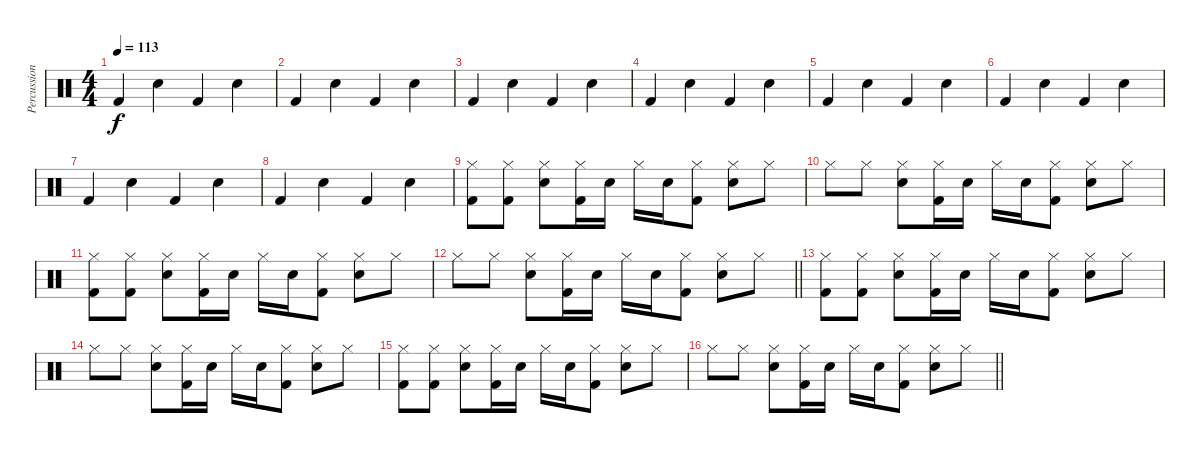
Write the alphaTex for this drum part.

\track ("Percussion" "Percussion") {instrument percussion}
\staff {score}
\articulation defaults
\ts (4 4)
\tempo 113
\clef neutral
\ks c "Kick (hit) 2".4{dy f} "Snare (hit) 2".4 "Kick (hit) 2".4 "Snare (hit) 2".4
|
"Kick (hit) 2".4 "Snare (hit) 2".4 "Kick (hit) 2".4 "Snare (hit) 2".4 |
"Kick (hit) 2".4 "Snare (hit) 2".4 "Kick (hit) 2".4 "Snare (hit) 2".4 |
"Kick (hit) 2".4 "Snare (hit) 2".4 "Kick (hit) 2".4 "Snare (hit) 2".4 |
"Kick (hit) 2".4 "Snare (hit) 2".4 "Kick (hit) 2".4 "Snare (hit) 2".4 |
"Kick (hit) 2".4 "Snare (hit) 2".4 "Kick (hit) 2".4 "Snare (hit) 2".4 |
"Kick (hit) 2".4 "Snare (hit) 2".4 "Kick (hit) 2".4 "Snare (hit) 2".4 |
"Kick (hit) 2".4 "Snare (hit) 2".4 "Kick (hit) 2".4 "Snare (hit) 2".4 |
("Hi-Hat (closed)" "Kick (hit) 2").8 ("Hi-Hat (closed)" "Kick (hit) 2").8 ("Hi-Hat (closed)" "Snare (hit) 2").8 ("Hi-Hat (closed)" "Kick (hit) 2").16 "Snare (hit) 2".16 "Hi-Hat (closed)".16 "Snare (hit) 2".16 ("Hi-Hat (closed)" "Kick (hit) 2").8 ("Hi-Hat (closed)" "Snare (hit) 2").8 "Hi-Hat (closed)".8 |
"Hi-Hat (closed)".8 "Hi-Hat (closed)".8 ("Hi-Hat (closed)" "Snare (hit) 2").8 ("Hi-Hat (closed)" "Kick (hit) 2").16 "Snare (hit) 2".16 "Hi-Hat (closed)".16 "Snare (hit) 2".16 ("Hi-Hat (closed)" "Kick (hit) 2").8 ("Hi-Hat (closed)" "Snare (hit) 2").8 "Hi-Hat (closed)".8 |
("Hi-Hat (closed)" "Kick (hit) 2").8 ("Hi-Hat (closed)" "Kick (hit) 2").8 ("Hi-Hat (closed)" "Snare (hit) 2").8 ("Hi-Hat (closed)" "Kick (hit) 2").16 "Snare (hit) 2".16 "Hi-Hat (closed)".16 "Snare (hit) 2".16 ("Hi-Hat (closed)" "Kick (hit) 2").8 ("Hi-Hat (closed)" "Snare (hit) 2").8 "Hi-Hat (closed)".8 |
\barLineRight lightlight "Hi-Hat (closed)".8 "Hi-Hat (closed)".8
("Hi-Hat (closed)" "Snare (hit) 2").8 ("Hi-Hat (closed)" "Kick (hit) 2").16 "Snare (hit) 2".16 "Hi-Hat (closed)".16 "Snare (hit) 2".16 ("Hi-Hat (closed)" "Kick (hit) 2").8 ("Hi-Hat (closed)" "Snare (hit) 2").8 "Hi-Hat (closed)".8 |
("Hi-Hat (closed)" "Kick (hit) 2").8 ("Hi-Hat (closed)" "Kick (hit) 2").8 ("Hi-Hat (closed)" "Snare (hit) 2").8 ("Hi-Hat (closed)" "Kick (hit) 2").16 "Snare (hit) 2".16 "Hi-Hat (closed)".16 "Snare (hit) 2".16 ("Hi-Hat (closed)" "Kick (hit) 2").8 ("Hi-Hat (closed)" "Snare (hit) 2").8 "Hi-Hat (closed)".8 |
"Hi-Hat (closed)".8 "Hi-Hat (closed)".8 ("Hi-Hat (closed)" "Snare (hit) 2").8 ("Hi-Hat (closed)" "Kick (hit) 2").16 "Snare (hit) 2".16 "Hi-Hat (closed)".16 "Snare (hit) 2".16 ("Hi-Hat (closed)" "Kick (hit) 2").8 ("Hi-Hat (closed)" "Snare (hit) 2").8 "Hi-Hat (closed)".8 |
("Hi-Hat (closed)" "Kick (hit) 2").8 ("Hi-Hat (closed)" "Kick (hit) 2").8 ("Hi-Hat (closed)" "Snare (hit) 2").8 ("Hi-Hat (closed)" "Kick (hit) 2").16 "Snare (hit) 2".16 "Hi-Hat (closed)".16 "Snare (hit) 2".16 ("Hi-Hat (closed)" "Kick (hit) 2").8 ("Hi-Hat (closed)" "Snare (hit) 2").8 "Hi-Hat (closed)".8 |
\barLineRight lightlight "Hi-Hat (closed)".8 "Hi-Hat (closed)".8
("Hi-Hat (closed)" "Snare (hit) 2").8 ("Hi-Hat (closed)" "Kick (hit) 2").16 "Snare (hit) 2".16 "Hi-Hat (closed)".16 "Snare (hit) 2".16 ("Hi-Hat (closed)" "Kick (hit) 2").8 ("Hi-Hat (closed)" "Snare (hit) 2").8 "Hi-Hat (closed)".8
